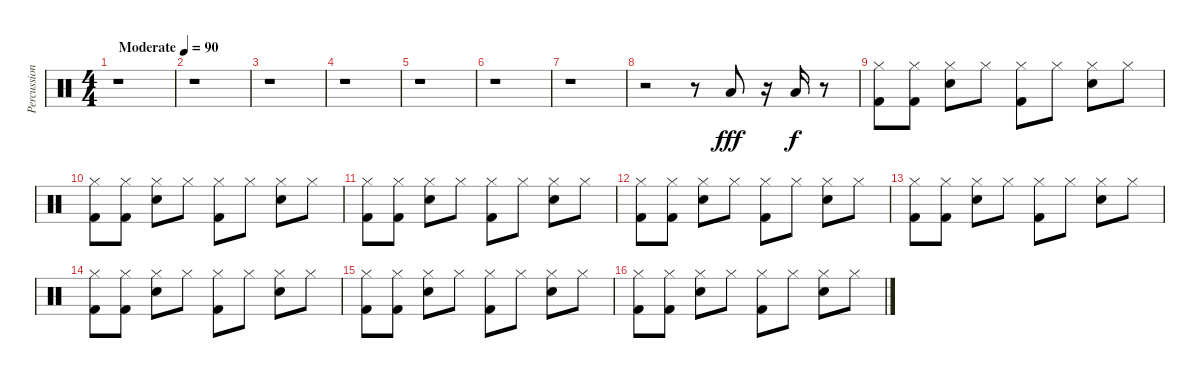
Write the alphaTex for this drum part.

\track ("Percussion" "Percussion") {instrument percussion}
\staff {score}
\articulation defaults
\ts (4 4)
\tempo (90 "Moderate")
\clef neutral
\ks c
r.1{dy fff} |
r.1 |
r.1 |
r.1 |
r.1 |
r.1 |
r.1 |
r.2 r.8 "Low Tom (hit)".8 r.16 "Low Floor Tom (hit)".16{dy f} r.8 |
("Hi-Hat (closed)" "Kick (hit) 2").8 ("Hi-Hat (closed)" "Kick (hit) 2").8 ("Hi-Hat (closed)" "Snare (hit) 2").8 "Hi-Hat (closed)".8 ("Hi-Hat (closed)" "Kick (hit) 2").8 "Hi-Hat (closed)".8 ("Hi-Hat (closed)" "Snare (hit) 2").8 "Hi-Hat (closed)".8 |
("Hi-Hat (closed)" "Kick (hit) 2").8 ("Hi-Hat (closed)" "Kick (hit) 2").8 ("Hi-Hat (closed)" "Snare (hit) 2").8 "Hi-Hat (closed)".8 ("Hi-Hat (closed)" "Kick (hit) 2").8 "Hi-Hat (closed)".8 ("Hi-Hat (closed)" "Snare (hit) 2").8 "Hi-Hat (closed)".8 |
("Hi-Hat (closed)" "Kick (hit) 2").8 ("Hi-Hat (closed)" "Kick (hit) 2").8 ("Hi-Hat (closed)" "Snare (hit) 2").8 "Hi-Hat (closed)".8 ("Hi-Hat (closed)" "Kick (hit) 2").8 "Hi-Hat (closed)".8 ("Hi-Hat (closed)" "Snare (hit) 2").8 "Hi-Hat (closed)".8 |
("Hi-Hat (closed)" "Kick (hit) 2").8 ("Hi-Hat (closed)" "Kick (hit) 2").8 ("Hi-Hat (closed)" "Snare (hit) 2").8 "Hi-Hat (closed)".8 ("Hi-Hat (closed)" "Kick (hit) 2").8 "Hi-Hat (closed)".8 ("Hi-Hat (closed)" "Snare (hit) 2").8 "Hi-Hat (closed)".8 |
("Hi-Hat (closed)" "Kick (hit) 2").8 ("Hi-Hat (closed)" "Kick (hit) 2").8 ("Hi-Hat (closed)" "Snare (hit) 2").8 "Hi-Hat (closed)".8 ("Hi-Hat (closed)" "Kick (hit) 2").8 "Hi-Hat (closed)".8 ("Hi-Hat (closed)" "Snare (hit) 2").8 "Hi-Hat (closed)".8 |
("Hi-Hat (closed)" "Kick (hit) 2").8 ("Hi-Hat (closed)" "Kick (hit) 2").8 ("Hi-Hat (closed)" "Snare (hit) 2").8 "Hi-Hat (closed)".8 ("Hi-Hat (closed)" "Kick (hit) 2").8 "Hi-Hat (closed)".8 ("Hi-Hat (closed)" "Snare (hit) 2").8 "Hi-Hat (closed)".8 |
("Hi-Hat (closed)" "Kick (hit) 2").8 ("Hi-Hat (closed)" "Kick (hit) 2").8 ("Hi-Hat (closed)" "Snare (hit) 2").8 "Hi-Hat (closed)".8 ("Hi-Hat (closed)" "Kick (hit) 2").8 "Hi-Hat (closed)".8 ("Hi-Hat (closed)" "Snare (hit) 2").8 "Hi-Hat (closed)".8 |
("Hi-Hat (closed)" "Kick (hit) 2").8 ("Hi-Hat (closed)" "Kick (hit) 2").8 ("Hi-Hat (closed)" "Snare (hit) 2").8 "Hi-Hat (closed)".8 ("Hi-Hat (closed)" "Kick (hit) 2").8 "Hi-Hat (closed)".8 ("Hi-Hat (closed)" "Snare (hit) 2").8 "Hi-Hat (closed)".8
